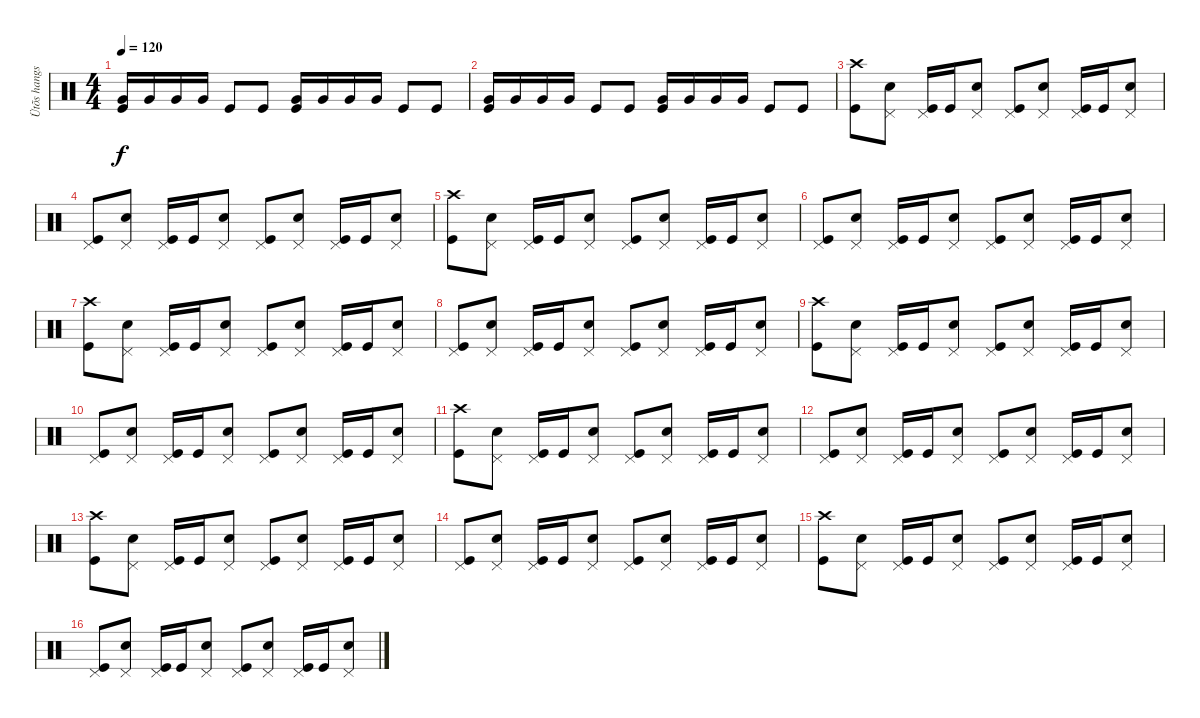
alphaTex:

\track ("Ütõs hangszer" "Ütõs hangs") {instrument percussion}
\staff {score}
\articulation defaults
\ts (4 4)
\tempo 120
\clef neutral
\ks c
("Very Low Tom (hit)" "Kick (hit)").16{dy f} "Very Low Tom (hit)".16 "Very Low Tom (hit)".16 "Very Low Tom (hit)".16 "Kick (hit)".8 "Kick (hit)".8 ("Very Low Tom (hit)" "Kick (hit)").16 "Very Low Tom (hit)".16 "Very Low Tom (hit)".16 "Very Low Tom (hit)".16 "Kick (hit)".8 "Kick (hit)".8 |
("Very Low Tom (hit)" "Kick (hit)").16 "Very Low Tom (hit)".16 "Very Low Tom (hit)".16 "Very Low Tom (hit)".16 "Kick (hit)".8 "Kick (hit)".8 ("Very Low Tom (hit)" "Kick (hit)").16 "Very Low Tom (hit)".16 "Very Low Tom (hit)".16 "Very Low Tom (hit)".16 "Kick (hit)".8 "Kick (hit)".8 |
("Crash high (hit)" "Kick (hit)").8 ("Pedal Hi-Hat (hit)" "Electric Snare (hit)").8 ("Pedal Hi-Hat (hit)" "Kick (hit)").16 "Kick (hit)".16 ("Pedal Hi-Hat (hit)" "Electric Snare (hit)").8 ("Pedal Hi-Hat (hit)" "Kick (hit)").8 ("Pedal Hi-Hat (hit)" "Electric Snare (hit)").8 ("Pedal Hi-Hat (hit)" "Kick (hit)").16 "Kick (hit)".16 ("Pedal Hi-Hat (hit)" "Electric Snare (hit)").8 |
("Pedal Hi-Hat (hit)" "Kick (hit)").8 ("Pedal Hi-Hat (hit)" "Electric Snare (hit)").8 ("Pedal Hi-Hat (hit)" "Kick (hit)").16 "Kick (hit)".16 ("Pedal Hi-Hat (hit)" "Electric Snare (hit)").8 ("Pedal Hi-Hat (hit)" "Kick (hit)").8 ("Pedal Hi-Hat (hit)" "Electric Snare (hit)").8 ("Pedal Hi-Hat (hit)" "Kick (hit)").16 "Kick (hit)".16 ("Pedal Hi-Hat (hit)" "Electric Snare (hit)").8 |
("Crash high (hit)" "Kick (hit)").8 ("Pedal Hi-Hat (hit)" "Electric Snare (hit)").8 ("Pedal Hi-Hat (hit)" "Kick (hit)").16 "Kick (hit)".16 ("Pedal Hi-Hat (hit)" "Electric Snare (hit)").8 ("Pedal Hi-Hat (hit)" "Kick (hit)").8 ("Pedal Hi-Hat (hit)" "Electric Snare (hit)").8 ("Pedal Hi-Hat (hit)" "Kick (hit)").16 "Kick (hit)".16 ("Pedal Hi-Hat (hit)" "Electric Snare (hit)").8 |
("Pedal Hi-Hat (hit)" "Kick (hit)").8 ("Pedal Hi-Hat (hit)" "Electric Snare (hit)").8 ("Pedal Hi-Hat (hit)" "Kick (hit)").16 "Kick (hit)".16 ("Pedal Hi-Hat (hit)" "Electric Snare (hit)").8 ("Pedal Hi-Hat (hit)" "Kick (hit)").8 ("Pedal Hi-Hat (hit)" "Electric Snare (hit)").8 ("Pedal Hi-Hat (hit)" "Kick (hit)").16 "Kick (hit)".16 ("Pedal Hi-Hat (hit)" "Electric Snare (hit)").8 |
("Crash high (hit)" "Kick (hit)").8 ("Pedal Hi-Hat (hit)" "Electric Snare (hit)").8 ("Pedal Hi-Hat (hit)" "Kick (hit)").16 "Kick (hit)".16 ("Pedal Hi-Hat (hit)" "Electric Snare (hit)").8 ("Pedal Hi-Hat (hit)" "Kick (hit)").8 ("Pedal Hi-Hat (hit)" "Electric Snare (hit)").8 ("Pedal Hi-Hat (hit)" "Kick (hit)").16 "Kick (hit)".16 ("Pedal Hi-Hat (hit)" "Electric Snare (hit)").8 |
("Pedal Hi-Hat (hit)" "Kick (hit)").8 ("Pedal Hi-Hat (hit)" "Electric Snare (hit)").8 ("Pedal Hi-Hat (hit)" "Kick (hit)").16 "Kick (hit)".16 ("Pedal Hi-Hat (hit)" "Electric Snare (hit)").8 ("Pedal Hi-Hat (hit)" "Kick (hit)").8 ("Pedal Hi-Hat (hit)" "Electric Snare (hit)").8 ("Pedal Hi-Hat (hit)" "Kick (hit)").16 "Kick (hit)".16 ("Pedal Hi-Hat (hit)" "Electric Snare (hit)").8 |
("Crash high (hit)" "Kick (hit)").8 ("Pedal Hi-Hat (hit)" "Electric Snare (hit)").8 ("Pedal Hi-Hat (hit)" "Kick (hit)").16 "Kick (hit)".16 ("Pedal Hi-Hat (hit)" "Electric Snare (hit)").8 ("Pedal Hi-Hat (hit)" "Kick (hit)").8 ("Pedal Hi-Hat (hit)" "Electric Snare (hit)").8 ("Pedal Hi-Hat (hit)" "Kick (hit)").16 "Kick (hit)".16 ("Pedal Hi-Hat (hit)" "Electric Snare (hit)").8 |
("Pedal Hi-Hat (hit)" "Kick (hit)").8 ("Pedal Hi-Hat (hit)" "Electric Snare (hit)").8 ("Pedal Hi-Hat (hit)" "Kick (hit)").16 "Kick (hit)".16 ("Pedal Hi-Hat (hit)" "Electric Snare (hit)").8 ("Pedal Hi-Hat (hit)" "Kick (hit)").8 ("Pedal Hi-Hat (hit)" "Electric Snare (hit)").8 ("Pedal Hi-Hat (hit)" "Kick (hit)").16 "Kick (hit)".16 ("Pedal Hi-Hat (hit)" "Electric Snare (hit)").8 |
("Crash high (hit)" "Kick (hit)").8 ("Pedal Hi-Hat (hit)" "Electric Snare (hit)").8 ("Pedal Hi-Hat (hit)" "Kick (hit)").16 "Kick (hit)".16 ("Pedal Hi-Hat (hit)" "Electric Snare (hit)").8 ("Pedal Hi-Hat (hit)" "Kick (hit)").8 ("Pedal Hi-Hat (hit)" "Electric Snare (hit)").8 ("Pedal Hi-Hat (hit)" "Kick (hit)").16 "Kick (hit)".16 ("Pedal Hi-Hat (hit)" "Electric Snare (hit)").8 |
("Pedal Hi-Hat (hit)" "Kick (hit)").8 ("Pedal Hi-Hat (hit)" "Electric Snare (hit)").8 ("Pedal Hi-Hat (hit)" "Kick (hit)").16 "Kick (hit)".16 ("Pedal Hi-Hat (hit)" "Electric Snare (hit)").8 ("Pedal Hi-Hat (hit)" "Kick (hit)").8 ("Pedal Hi-Hat (hit)" "Electric Snare (hit)").8 ("Pedal Hi-Hat (hit)" "Kick (hit)").16 "Kick (hit)".16 ("Pedal Hi-Hat (hit)" "Electric Snare (hit)").8 |
("Crash high (hit)" "Kick (hit)").8 ("Pedal Hi-Hat (hit)" "Electric Snare (hit)").8 ("Pedal Hi-Hat (hit)" "Kick (hit)").16 "Kick (hit)".16 ("Pedal Hi-Hat (hit)" "Electric Snare (hit)").8 ("Pedal Hi-Hat (hit)" "Kick (hit)").8 ("Pedal Hi-Hat (hit)" "Electric Snare (hit)").8 ("Pedal Hi-Hat (hit)" "Kick (hit)").16 "Kick (hit)".16 ("Pedal Hi-Hat (hit)" "Electric Snare (hit)").8 |
("Pedal Hi-Hat (hit)" "Kick (hit)").8 ("Pedal Hi-Hat (hit)" "Electric Snare (hit)").8 ("Pedal Hi-Hat (hit)" "Kick (hit)").16 "Kick (hit)".16 ("Pedal Hi-Hat (hit)" "Electric Snare (hit)").8 ("Pedal Hi-Hat (hit)" "Kick (hit)").8 ("Pedal Hi-Hat (hit)" "Electric Snare (hit)").8 ("Pedal Hi-Hat (hit)" "Kick (hit)").16 "Kick (hit)".16 ("Pedal Hi-Hat (hit)" "Electric Snare (hit)").8 |
("Crash high (hit)" "Kick (hit)").8 ("Pedal Hi-Hat (hit)" "Electric Snare (hit)").8 ("Pedal Hi-Hat (hit)" "Kick (hit)").16 "Kick (hit)".16 ("Pedal Hi-Hat (hit)" "Electric Snare (hit)").8 ("Pedal Hi-Hat (hit)" "Kick (hit)").8 ("Pedal Hi-Hat (hit)" "Electric Snare (hit)").8 ("Pedal Hi-Hat (hit)" "Kick (hit)").16 "Kick (hit)".16 ("Pedal Hi-Hat (hit)" "Electric Snare (hit)").8 |
("Pedal Hi-Hat (hit)" "Kick (hit)").8 ("Pedal Hi-Hat (hit)" "Electric Snare (hit)").8 ("Pedal Hi-Hat (hit)" "Kick (hit)").16 "Kick (hit)".16 ("Pedal Hi-Hat (hit)" "Electric Snare (hit)").8 ("Pedal Hi-Hat (hit)" "Kick (hit)").8 ("Pedal Hi-Hat (hit)" "Electric Snare (hit)").8 ("Pedal Hi-Hat (hit)" "Kick (hit)").16 "Kick (hit)".16 ("Pedal Hi-Hat (hit)" "Electric Snare (hit)").8
